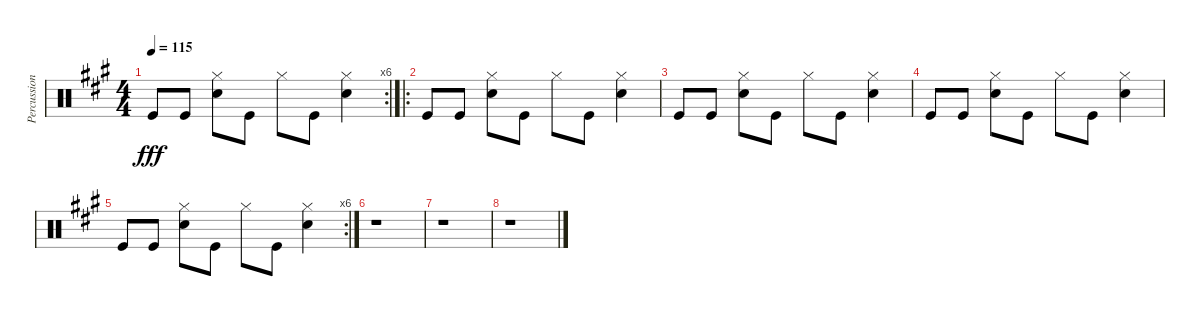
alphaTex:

\track ("Percussioni" "Percussion") {instrument percussion}
\staff {score}
\articulation defaults
\rc 6
\ts (4 4)
\tempo 115
\clef neutral
\ks a "Kick (hit)".8{dy fff} "Kick (hit)".8
("Hi-Hat (closed)" "Snare (hit) 2").8 "Kick (hit)".8 "Hi-Hat (closed)".8 "Kick (hit)".8 ("Hi-Hat (closed)" "Snare (hit) 2").4 |
\ro "Kick (hit)".8 "Kick (hit)".8
("Hi-Hat (closed)" "Snare (hit) 2").8 "Kick (hit)".8 "Hi-Hat (closed)".8 "Kick (hit)".8 ("Hi-Hat (closed)" "Snare (hit) 2").4 |
"Kick (hit)".8 "Kick (hit)".8 ("Hi-Hat (closed)" "Snare (hit) 2").8 "Kick (hit)".8 "Hi-Hat (closed)".8 "Kick (hit)".8 ("Hi-Hat (closed)" "Snare (hit) 2").4 |
"Kick (hit)".8 "Kick (hit)".8 ("Hi-Hat (closed)" "Snare (hit) 2").8 "Kick (hit)".8 "Hi-Hat (closed)".8 "Kick (hit)".8 ("Hi-Hat (closed)" "Snare (hit) 2").4 |
\rc 6 "Kick (hit)".8 "Kick (hit)".8
("Hi-Hat (closed)" "Snare (hit) 2").8 "Kick (hit)".8 "Hi-Hat (closed)".8 "Kick (hit)".8 ("Hi-Hat (closed)" "Snare (hit) 2").4 |
r.1 |
r.1 |
r.1
